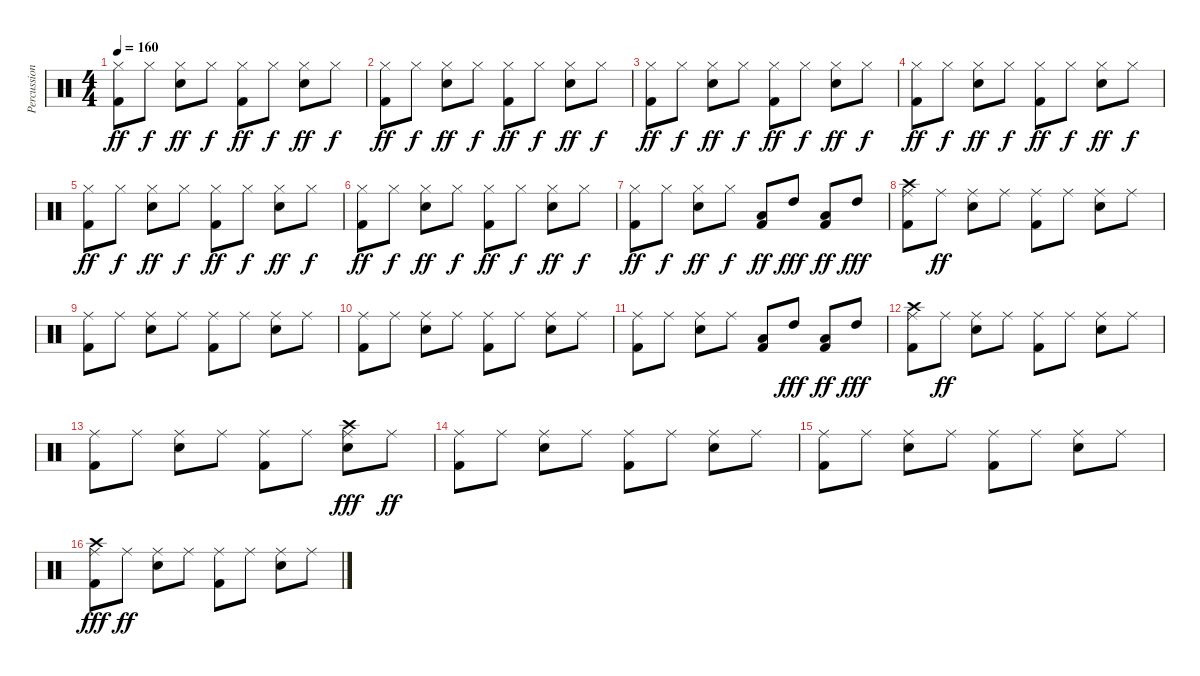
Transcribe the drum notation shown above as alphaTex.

\track ("Percussion" "Percussion") {instrument percussion}
\staff {score}
\articulation defaults
\ts (4 4)
\tempo 160
\clef neutral
\ks c
("Hi-Hat (closed)" "Kick (hit) 2").8{dy ff} "Hi-Hat (closed)".8{dy f} ("Hi-Hat (closed)" "Snare (hit) 2").8{dy ff} "Hi-Hat (closed)".8{dy f} ("Hi-Hat (closed)" "Kick (hit) 2").8{dy ff} "Hi-Hat (closed)".8{dy f} ("Hi-Hat (closed)" "Snare (hit) 2").8{dy ff} "Hi-Hat (closed)".8{dy f} |
("Hi-Hat (closed)" "Kick (hit) 2").8{dy ff} "Hi-Hat (closed)".8{dy f} ("Hi-Hat (closed)" "Snare (hit) 2").8{dy ff} "Hi-Hat (closed)".8{dy f} ("Hi-Hat (closed)" "Kick (hit) 2").8{dy ff} "Hi-Hat (closed)".8{dy f} ("Hi-Hat (closed)" "Snare (hit) 2").8{dy ff} "Hi-Hat (closed)".8{dy f} |
("Hi-Hat (closed)" "Kick (hit) 2").8{dy ff} "Hi-Hat (closed)".8{dy f} ("Hi-Hat (closed)" "Snare (hit) 2").8{dy ff} "Hi-Hat (closed)".8{dy f} ("Hi-Hat (closed)" "Kick (hit) 2").8{dy ff} "Hi-Hat (closed)".8{dy f} ("Hi-Hat (closed)" "Snare (hit) 2").8{dy ff} "Hi-Hat (closed)".8{dy f} |
("Hi-Hat (closed)" "Kick (hit) 2").8{dy ff} "Hi-Hat (closed)".8{dy f} ("Hi-Hat (closed)" "Snare (hit) 2").8{dy ff} "Hi-Hat (closed)".8{dy f} ("Hi-Hat (closed)" "Kick (hit) 2").8{dy ff} "Hi-Hat (closed)".8{dy f} ("Hi-Hat (closed)" "Snare (hit) 2").8{dy ff} "Hi-Hat (closed)".8{dy f} |
("Hi-Hat (closed)" "Kick (hit) 2").8{dy ff} "Hi-Hat (closed)".8{dy f} ("Hi-Hat (closed)" "Snare (hit) 2").8{dy ff} "Hi-Hat (closed)".8{dy f} ("Hi-Hat (closed)" "Kick (hit) 2").8{dy ff} "Hi-Hat (closed)".8{dy f} ("Hi-Hat (closed)" "Snare (hit) 2").8{dy ff} "Hi-Hat (closed)".8{dy f} |
("Hi-Hat (closed)" "Kick (hit) 2").8{dy ff} "Hi-Hat (closed)".8{dy f} ("Hi-Hat (closed)" "Snare (hit) 2").8{dy ff} "Hi-Hat (closed)".8{dy f} ("Hi-Hat (closed)" "Kick (hit) 2").8{dy ff} "Hi-Hat (closed)".8{dy f} ("Hi-Hat (closed)" "Snare (hit) 2").8{dy ff} "Hi-Hat (closed)".8{dy f} |
("Hi-Hat (closed)" "Kick (hit) 2").8{dy ff} "Hi-Hat (closed)".8{dy f} ("Hi-Hat (closed)" "Snare (hit) 2").8{dy ff} "Hi-Hat (closed)".8{dy f} ("Low Floor Tom (hit)" "Kick (hit) 2").8{dy ff} "High Tom (hit)".8{dy fff} ("Low Floor Tom (hit)" "Kick (hit) 2").8{dy ff} "High Tom (hit)".8{dy fff} |
("Ride (middle)" "Kick (hit) 2" "Crash high (hit)").8 "Ride (middle)".8{dy ff} ("Ride (middle)" "Snare (hit) 2").8 "Ride (middle)".8 ("Ride (middle)" "Kick (hit) 2").8 "Ride (middle)".8 ("Ride (middle)" "Snare (hit) 2").8 "Ride (middle)".8 |
("Ride (middle)" "Kick (hit) 2").8 "Ride (middle)".8 ("Ride (middle)" "Snare (hit) 2").8 "Ride (middle)".8 ("Ride (middle)" "Kick (hit) 2").8 "Ride (middle)".8 ("Ride (middle)" "Snare (hit) 2").8 "Ride (middle)".8 |
("Ride (middle)" "Kick (hit) 2").8 "Ride (middle)".8 ("Ride (middle)" "Snare (hit) 2").8 "Ride (middle)".8 ("Ride (middle)" "Kick (hit) 2").8 "Ride (middle)".8 ("Ride (middle)" "Snare (hit) 2").8 "Ride (middle)".8 |
("Ride (middle)" "Kick (hit) 2").8 "Ride (middle)".8 ("Ride (middle)" "Snare (hit) 2").8 "Ride (middle)".8 ("Low Floor Tom (hit)" "Kick (hit) 2").8 "High Tom (hit)".8{dy fff} ("Low Floor Tom (hit)" "Kick (hit) 2").8{dy ff} "High Tom (hit)".8{dy fff} |
("Ride (middle)" "Kick (hit) 2" "Crash high (hit)").8 "Ride (middle)".8{dy ff} ("Ride (middle)" "Snare (hit) 2").8 "Ride (middle)".8 ("Ride (middle)" "Kick (hit) 2").8 "Ride (middle)".8 ("Ride (middle)" "Snare (hit) 2").8 "Ride (middle)".8 |
("Ride (middle)" "Kick (hit) 2").8 "Ride (middle)".8 ("Ride (middle)" "Snare (hit) 2").8 "Ride (middle)".8 ("Ride (middle)" "Kick (hit) 2").8 "Ride (middle)".8 ("Ride (middle)" "Snare (hit) 2" "Crash high (hit)").8{dy fff} "Ride (middle)".8{dy ff} |
("Ride (middle)" "Kick (hit) 2").8 "Ride (middle)".8 ("Ride (middle)" "Snare (hit) 2").8 "Ride (middle)".8 ("Ride (middle)" "Kick (hit) 2").8 "Ride (middle)".8 ("Ride (middle)" "Snare (hit) 2").8 "Ride (middle)".8 |
("Ride (middle)" "Kick (hit) 2").8 "Ride (middle)".8 ("Ride (middle)" "Snare (hit) 2").8 "Ride (middle)".8 ("Ride (middle)" "Kick (hit) 2").8 "Ride (middle)".8 ("Ride (middle)" "Snare (hit) 2").8 "Ride (middle)".8 |
("Ride (middle)" "Kick (hit) 2" "Crash high (hit)").8{dy fff} "Ride (middle)".8{dy ff} ("Ride (middle)" "Snare (hit) 2").8 "Ride (middle)".8 ("Ride (middle)" "Kick (hit) 2").8 "Ride (middle)".8 ("Ride (middle)" "Snare (hit) 2").8 "Ride (middle)".8
